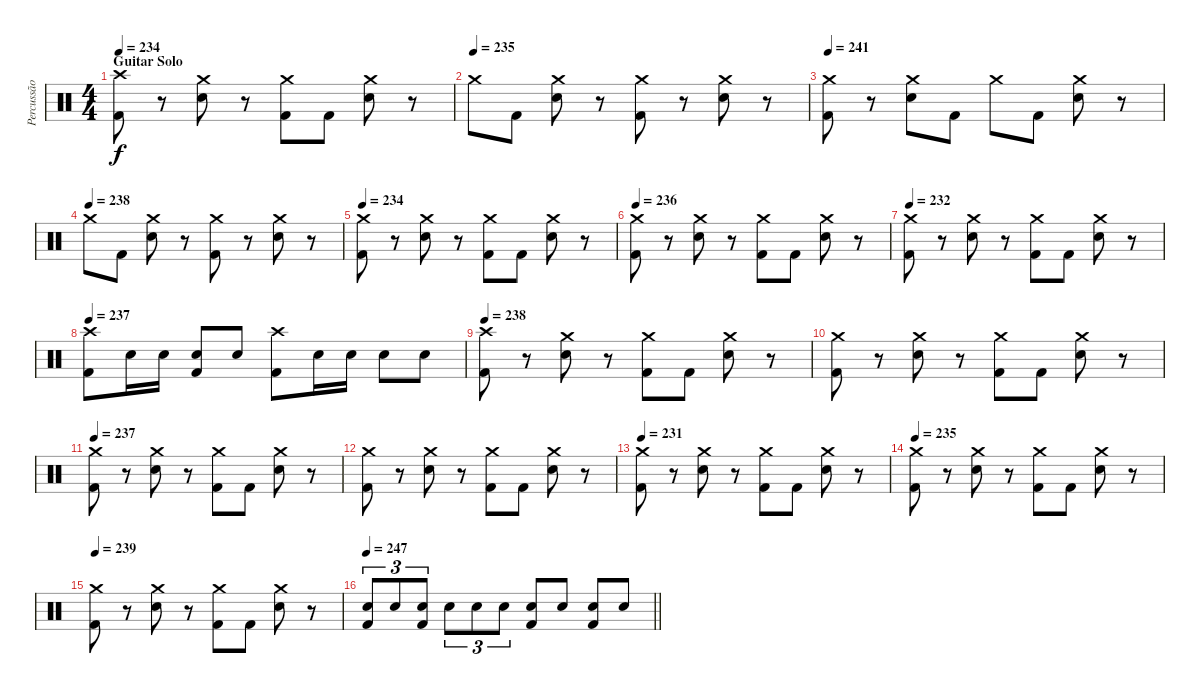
\track ("Percussão" "Percussão") {instrument percussion}
\staff {score}
\articulation defaults
\ts (4 4)
\section ("" "Guitar Solo")
\tempo 234
\clef neutral
\ks c
("Crash high (hit)" "Kick (hit) 2").8{dy f} r.8 ("Crash medium (hit)" "Electric Snare (hit)").8 r.8 ("Crash medium (hit)" "Kick (hit) 2").8 "Kick (hit) 2".8 ("Crash medium (hit)" "Electric Snare (hit)").8 r.8 |
\tempo (235)
"Crash medium (hit)".8 "Kick (hit) 2".8 ("Crash medium (hit)" "Electric Snare (hit)").8 r.8 ("Crash medium (hit)" "Kick (hit) 2").8 r.8 ("Crash medium (hit)" "Electric Snare (hit)").8 r.8 |
\tempo 241
("Crash medium (hit)" "Kick (hit) 2").8 r.8 ("Crash medium (hit)" "Electric Snare (hit)").8 "Kick (hit) 2".8 "Crash medium (hit)".8 "Kick (hit) 2".8 ("Crash medium (hit)" "Electric Snare (hit)").8 r.8 |
\tempo (238)
"Crash medium (hit)".8 "Kick (hit) 2".8 ("Crash medium (hit)" "Electric Snare (hit)").8 r.8 ("Crash medium (hit)" "Kick (hit) 2").8 r.8 ("Crash medium (hit)" "Electric Snare (hit)").8 r.8 |
\tempo 234
("Crash medium (hit)" "Kick (hit) 2").8 r.8 ("Crash medium (hit)" "Electric Snare (hit)").8 r.8 ("Crash medium (hit)" "Kick (hit) 2").8 "Kick (hit) 2".8 ("Crash medium (hit)" "Electric Snare (hit)").8 r.8 |
\tempo 236
("Crash medium (hit)" "Kick (hit) 2").8 r.8 ("Crash medium (hit)" "Electric Snare (hit)").8 r.8 ("Crash medium (hit)" "Kick (hit) 2").8 "Kick (hit) 2".8 ("Crash medium (hit)" "Electric Snare (hit)").8 r.8 |
\tempo 232
("Crash medium (hit)" "Kick (hit) 2").8 r.8 ("Crash medium (hit)" "Electric Snare (hit)").8 r.8 ("Crash medium (hit)" "Kick (hit) 2").8 "Kick (hit) 2".8 ("Crash medium (hit)" "Electric Snare (hit)").8 r.8 |
\tempo 237
("Crash high (hit)" "Kick (hit) 2").8 "Electric Snare (hit)".16 "Electric Snare (hit)".16 ("Electric Snare (hit)" "Kick (hit) 2").8 "Electric Snare (hit)".8 ("Crash high (hit)" "Kick (hit) 2").8 "Electric Snare (hit)".16 "Electric Snare (hit)".16 "Electric Snare (hit)".8 "Electric Snare (hit)".8 |
\tempo 238
("Crash high (hit)" "Kick (hit) 2").8 r.8 ("Crash medium (hit)" "Electric Snare (hit)").8 r.8 ("Crash medium (hit)" "Kick (hit) 2").8 "Kick (hit) 2".8 ("Crash medium (hit)" "Electric Snare (hit)").8 r.8 |
("Crash medium (hit)" "Kick (hit) 2").8 r.8 ("Crash medium (hit)" "Electric Snare (hit)").8 r.8 ("Crash medium (hit)" "Kick (hit) 2").8 "Kick (hit) 2".8 ("Crash medium (hit)" "Electric Snare (hit)").8 r.8 |
\tempo 237
("Crash medium (hit)" "Kick (hit) 2").8 r.8 ("Crash medium (hit)" "Electric Snare (hit)").8 r.8 ("Crash medium (hit)" "Kick (hit) 2").8 "Kick (hit) 2".8 ("Crash medium (hit)" "Electric Snare (hit)").8 r.8 |
("Crash medium (hit)" "Kick (hit) 2").8 r.8 ("Crash medium (hit)" "Electric Snare (hit)").8 r.8 ("Crash medium (hit)" "Kick (hit) 2").8 "Kick (hit) 2".8 ("Crash medium (hit)" "Electric Snare (hit)").8 r.8 |
\tempo 231
("Crash medium (hit)" "Kick (hit) 2").8 r.8 ("Crash medium (hit)" "Electric Snare (hit)").8 r.8 ("Crash medium (hit)" "Kick (hit) 2").8 "Kick (hit) 2".8 ("Crash medium (hit)" "Electric Snare (hit)").8 r.8 |
\tempo 235
("Crash medium (hit)" "Kick (hit) 2").8 r.8 ("Crash medium (hit)" "Electric Snare (hit)").8 r.8 ("Crash medium (hit)" "Kick (hit) 2").8 "Kick (hit) 2".8 ("Crash medium (hit)" "Electric Snare (hit)").8 r.8 |
\tempo 239
("Crash medium (hit)" "Kick (hit) 2").8 r.8 ("Crash medium (hit)" "Electric Snare (hit)").8 r.8 ("Crash medium (hit)" "Kick (hit) 2").8 "Kick (hit) 2".8 ("Crash medium (hit)" "Electric Snare (hit)").8 r.8 |
\tempo 247
\barLineRight lightlight
("Electric Snare (hit)" "Kick (hit) 2").8{tu (3 2)} "Electric Snare (hit)".8{tu (3 2)} ("Electric Snare (hit)" "Kick (hit) 2").8{tu (3 2)} "Electric Snare (hit)".8{tu (3 2)} "Electric Snare (hit)".8{tu (3 2)} "Electric Snare (hit)".8{tu (3 2)} ("Electric Snare (hit)" "Kick (hit) 2").8 "Electric Snare (hit)".8 ("Electric Snare (hit)" "Kick (hit) 2").8 "Electric Snare (hit)".8
